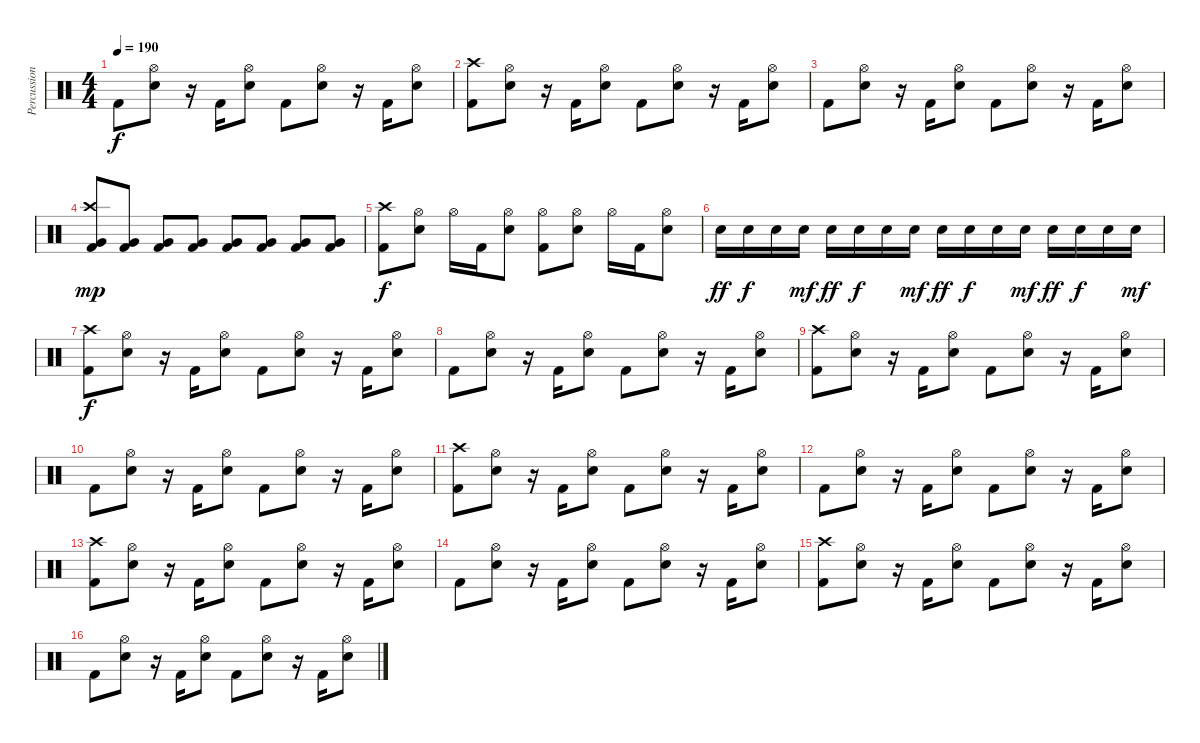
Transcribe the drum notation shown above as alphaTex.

\track ("Percussions" "Percussion") {instrument percussion}
\staff {score}
\articulation defaults
\ts (4 4)
\tempo 190
\clef neutral
\ks c "Kick (hit) 2".8{dy f}
("Hi-Hat (open)" "Electric Snare (hit)").8 r.16 "Kick (hit) 2".16 ("Hi-Hat (open)" "Electric Snare (hit)").8 "Kick (hit) 2".8 ("Hi-Hat (open)" "Electric Snare (hit)").8 r.16 "Kick (hit) 2".16 ("Hi-Hat (open)" "Electric Snare (hit)").8 |
("Crash high (hit)" "Kick (hit) 2").8 ("Hi-Hat (open)" "Electric Snare (hit)").8 r.16 "Kick (hit) 2".16 ("Hi-Hat (open)" "Electric Snare (hit)").8 "Kick (hit) 2".8 ("Hi-Hat (open)" "Electric Snare (hit)").8 r.16 "Kick (hit) 2".16 ("Hi-Hat (open)" "Electric Snare (hit)").8 |
"Kick (hit) 2".8 ("Hi-Hat (open)" "Electric Snare (hit)").8 r.16 "Kick (hit) 2".16 ("Hi-Hat (open)" "Electric Snare (hit)").8 "Kick (hit) 2".8 ("Hi-Hat (open)" "Electric Snare (hit)").8 r.16 "Kick (hit) 2".16 ("Hi-Hat (open)" "Electric Snare (hit)").8 |
("Crash high (hit)" "Very Low Tom (hit)" "Kick (hit) 2").8{dy mp} ("Very Low Tom (hit)" "Kick (hit) 2").8 ("Very Low Tom (hit)" "Kick (hit) 2").8 ("Very Low Tom (hit)" "Kick (hit) 2").8 ("Very Low Tom (hit)" "Kick (hit) 2").8 ("Very Low Tom (hit)" "Kick (hit) 2").8 ("Very Low Tom (hit)" "Kick (hit) 2").8 ("Very Low Tom (hit)" "Kick (hit) 2").8 |
("Crash high (hit)" "Kick (hit) 2").8{dy f} ("Hi-Hat (open)" "Electric Snare (hit)").8 "Hi-Hat (open)".16 "Kick (hit) 2".16 ("Hi-Hat (open)" "Electric Snare (hit)").8 ("Hi-Hat (open)" "Kick (hit) 2").8 ("Hi-Hat (open)" "Electric Snare (hit)").8 "Hi-Hat (open)".16 "Kick (hit) 2".16 ("Hi-Hat (open)" "Electric Snare (hit)").8 |
"Electric Snare (hit)".16{dy ff} "Electric Snare (hit)".16{dy f} "Electric Snare (hit)".16 "Electric Snare (hit)".16{dy mf} "Electric Snare (hit)".16{dy ff} "Electric Snare (hit)".16{dy f} "Electric Snare (hit)".16 "Electric Snare (hit)".16{dy mf} "Electric Snare (hit)".16{dy ff} "Electric Snare (hit)".16{dy f} "Electric Snare (hit)".16 "Electric Snare (hit)".16{dy mf} "Electric Snare (hit)".16{dy ff} "Electric Snare (hit)".16{dy f} "Electric Snare (hit)".16 "Electric Snare (hit)".16{dy mf} |
("Crash high (hit)" "Kick (hit) 2").8{dy f} ("Hi-Hat (open)" "Electric Snare (hit)").8 r.16 "Kick (hit) 2".16 ("Hi-Hat (open)" "Electric Snare (hit)").8 "Kick (hit) 2".8 ("Hi-Hat (open)" "Electric Snare (hit)").8 r.16 "Kick (hit) 2".16 ("Hi-Hat (open)" "Electric Snare (hit)").8 |
"Kick (hit) 2".8 ("Hi-Hat (open)" "Electric Snare (hit)").8 r.16 "Kick (hit) 2".16 ("Hi-Hat (open)" "Electric Snare (hit)").8 "Kick (hit) 2".8 ("Hi-Hat (open)" "Electric Snare (hit)").8 r.16 "Kick (hit) 2".16 ("Hi-Hat (open)" "Electric Snare (hit)").8 |
("Crash high (hit)" "Kick (hit) 2").8 ("Hi-Hat (open)" "Electric Snare (hit)").8 r.16 "Kick (hit) 2".16 ("Hi-Hat (open)" "Electric Snare (hit)").8 "Kick (hit) 2".8 ("Hi-Hat (open)" "Electric Snare (hit)").8 r.16 "Kick (hit) 2".16 ("Hi-Hat (open)" "Electric Snare (hit)").8 |
"Kick (hit) 2".8 ("Hi-Hat (open)" "Electric Snare (hit)").8 r.16 "Kick (hit) 2".16 ("Hi-Hat (open)" "Electric Snare (hit)").8 "Kick (hit) 2".8 ("Hi-Hat (open)" "Electric Snare (hit)").8 r.16 "Kick (hit) 2".16 ("Hi-Hat (open)" "Electric Snare (hit)").8 |
("Crash high (hit)" "Kick (hit) 2").8 ("Hi-Hat (open)" "Electric Snare (hit)").8 r.16 "Kick (hit) 2".16 ("Hi-Hat (open)" "Electric Snare (hit)").8 "Kick (hit) 2".8 ("Hi-Hat (open)" "Electric Snare (hit)").8 r.16 "Kick (hit) 2".16 ("Hi-Hat (open)" "Electric Snare (hit)").8 |
"Kick (hit) 2".8 ("Hi-Hat (open)" "Electric Snare (hit)").8 r.16 "Kick (hit) 2".16 ("Hi-Hat (open)" "Electric Snare (hit)").8 "Kick (hit) 2".8 ("Hi-Hat (open)" "Electric Snare (hit)").8 r.16 "Kick (hit) 2".16 ("Hi-Hat (open)" "Electric Snare (hit)").8 |
("Crash high (hit)" "Kick (hit) 2").8 ("Hi-Hat (open)" "Electric Snare (hit)").8 r.16 "Kick (hit) 2".16 ("Hi-Hat (open)" "Electric Snare (hit)").8 "Kick (hit) 2".8 ("Hi-Hat (open)" "Electric Snare (hit)").8 r.16 "Kick (hit) 2".16 ("Hi-Hat (open)" "Electric Snare (hit)").8 |
"Kick (hit) 2".8 ("Hi-Hat (open)" "Electric Snare (hit)").8 r.16 "Kick (hit) 2".16 ("Hi-Hat (open)" "Electric Snare (hit)").8 "Kick (hit) 2".8 ("Hi-Hat (open)" "Electric Snare (hit)").8 r.16 "Kick (hit) 2".16 ("Hi-Hat (open)" "Electric Snare (hit)").8 |
("Crash high (hit)" "Kick (hit) 2").8 ("Hi-Hat (open)" "Electric Snare (hit)").8 r.16 "Kick (hit) 2".16 ("Hi-Hat (open)" "Electric Snare (hit)").8 "Kick (hit) 2".8 ("Hi-Hat (open)" "Electric Snare (hit)").8 r.16 "Kick (hit) 2".16 ("Hi-Hat (open)" "Electric Snare (hit)").8 |
"Kick (hit) 2".8 ("Hi-Hat (open)" "Electric Snare (hit)").8 r.16 "Kick (hit) 2".16 ("Hi-Hat (open)" "Electric Snare (hit)").8 "Kick (hit) 2".8 ("Hi-Hat (open)" "Electric Snare (hit)").8 r.16 "Kick (hit) 2".16 ("Hi-Hat (open)" "Electric Snare (hit)").8
